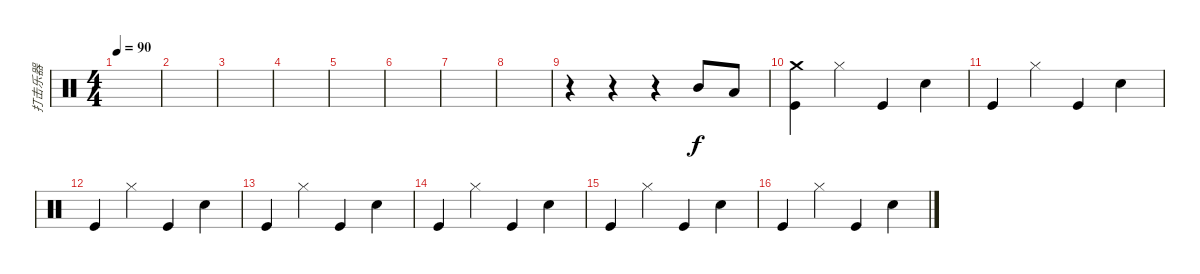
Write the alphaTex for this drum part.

\track ("打击乐器" "打击乐器") {instrument percussion}
\staff {score}
\articulation defaults
\ts (4 4)
\tempo 90
\clef neutral
\ks c
|
|
|
|
|
|
|
|
r.4 r.4 r.4 "Mid Tom (hit)".8 "Low Tom (hit)".8 |
("Crash medium (hit)" "Kick (hit)").4 "Hi-Hat (closed)".4 "Kick (hit)".4 "Electric Snare (hit)".4 |
"Kick (hit)".4 "Hi-Hat (closed)".4 "Kick (hit)".4 "Electric Snare (hit)".4 |
"Kick (hit)".4 "Hi-Hat (closed)".4 "Kick (hit)".4 "Electric Snare (hit)".4 |
"Kick (hit)".4 "Hi-Hat (closed)".4 "Kick (hit)".4 "Electric Snare (hit)".4 |
"Kick (hit)".4 "Hi-Hat (closed)".4 "Kick (hit)".4 "Electric Snare (hit)".4 |
"Kick (hit)".4 "Hi-Hat (closed)".4 "Kick (hit)".4 "Electric Snare (hit)".4 |
"Kick (hit)".4 "Hi-Hat (closed)".4 "Kick (hit)".4 "Electric Snare (hit)".4
